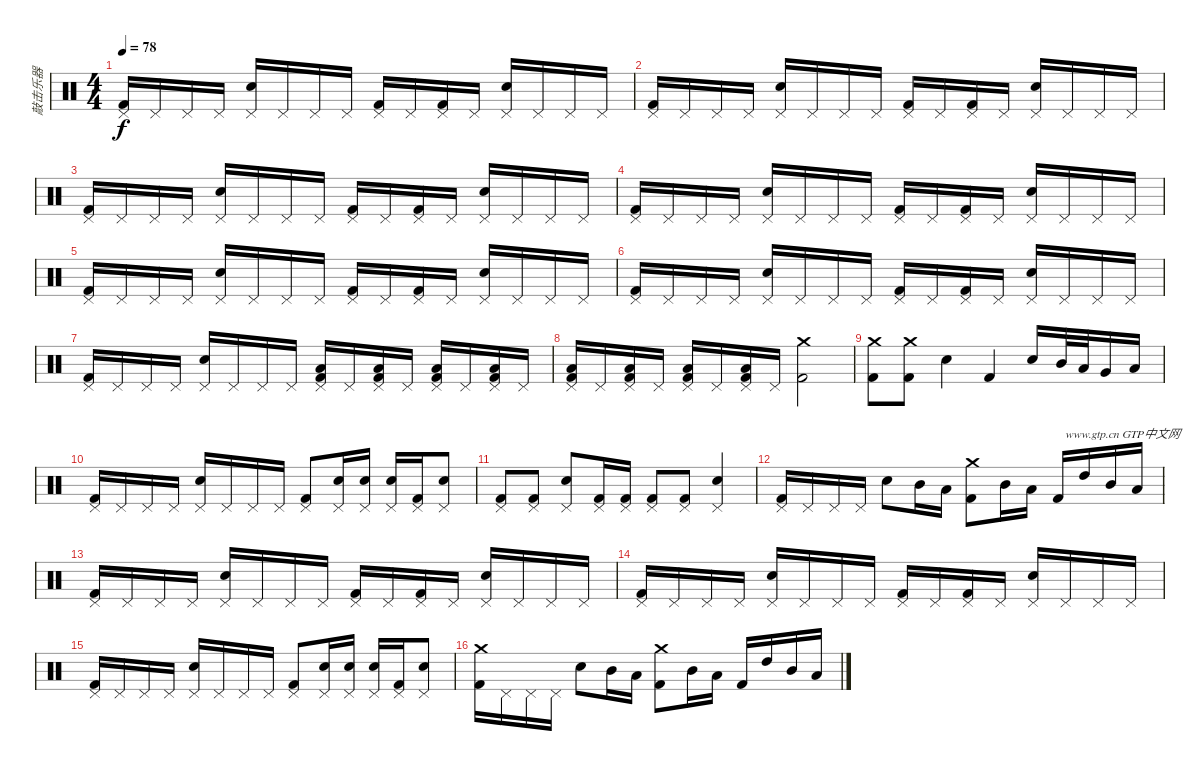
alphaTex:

\track ("敲击乐器" "敲击乐器") {instrument percussion}
\staff {score}
\articulation defaults
\ts (4 4)
\tempo 78
\clef neutral
\ks c
("Pedal Hi-Hat (hit)" "Kick (hit) 2").16{dy f} "Pedal Hi-Hat (hit)".16 "Pedal Hi-Hat (hit)".16 "Pedal Hi-Hat (hit)".16 ("Pedal Hi-Hat (hit)" "Snare (hit) 2").16 "Pedal Hi-Hat (hit)".16 "Pedal Hi-Hat (hit)".16 "Pedal Hi-Hat (hit)".16 ("Pedal Hi-Hat (hit)" "Kick (hit) 2").16 "Pedal Hi-Hat (hit)".16 ("Pedal Hi-Hat (hit)" "Kick (hit) 2").16 "Pedal Hi-Hat (hit)".16 ("Pedal Hi-Hat (hit)" "Snare (hit) 2").16 "Pedal Hi-Hat (hit)".16 "Pedal Hi-Hat (hit)".16 "Pedal Hi-Hat (hit)".16 |
("Pedal Hi-Hat (hit)" "Kick (hit) 2").16 "Pedal Hi-Hat (hit)".16 "Pedal Hi-Hat (hit)".16 "Pedal Hi-Hat (hit)".16 ("Pedal Hi-Hat (hit)" "Snare (hit) 2").16 "Pedal Hi-Hat (hit)".16 "Pedal Hi-Hat (hit)".16 "Pedal Hi-Hat (hit)".16 ("Pedal Hi-Hat (hit)" "Kick (hit) 2").16 "Pedal Hi-Hat (hit)".16 ("Pedal Hi-Hat (hit)" "Kick (hit) 2").16 "Pedal Hi-Hat (hit)".16 ("Pedal Hi-Hat (hit)" "Snare (hit) 2").16 "Pedal Hi-Hat (hit)".16 "Pedal Hi-Hat (hit)".16 "Pedal Hi-Hat (hit)".16 |
("Pedal Hi-Hat (hit)" "Kick (hit) 2").16 "Pedal Hi-Hat (hit)".16 "Pedal Hi-Hat (hit)".16 "Pedal Hi-Hat (hit)".16 ("Pedal Hi-Hat (hit)" "Snare (hit) 2").16 "Pedal Hi-Hat (hit)".16 "Pedal Hi-Hat (hit)".16 "Pedal Hi-Hat (hit)".16 ("Pedal Hi-Hat (hit)" "Kick (hit) 2").16 "Pedal Hi-Hat (hit)".16 ("Pedal Hi-Hat (hit)" "Kick (hit) 2").16 "Pedal Hi-Hat (hit)".16 ("Pedal Hi-Hat (hit)" "Snare (hit) 2").16 "Pedal Hi-Hat (hit)".16 "Pedal Hi-Hat (hit)".16 "Pedal Hi-Hat (hit)".16 |
("Pedal Hi-Hat (hit)" "Kick (hit) 2").16 "Pedal Hi-Hat (hit)".16 "Pedal Hi-Hat (hit)".16 "Pedal Hi-Hat (hit)".16 ("Pedal Hi-Hat (hit)" "Snare (hit) 2").16 "Pedal Hi-Hat (hit)".16 "Pedal Hi-Hat (hit)".16 "Pedal Hi-Hat (hit)".16 ("Pedal Hi-Hat (hit)" "Kick (hit) 2").16 "Pedal Hi-Hat (hit)".16 ("Pedal Hi-Hat (hit)" "Kick (hit) 2").16 "Pedal Hi-Hat (hit)".16 ("Pedal Hi-Hat (hit)" "Snare (hit) 2").16 "Pedal Hi-Hat (hit)".16 "Pedal Hi-Hat (hit)".16 "Pedal Hi-Hat (hit)".16 |
("Pedal Hi-Hat (hit)" "Kick (hit) 2").16 "Pedal Hi-Hat (hit)".16 "Pedal Hi-Hat (hit)".16 "Pedal Hi-Hat (hit)".16 ("Pedal Hi-Hat (hit)" "Snare (hit) 2").16 "Pedal Hi-Hat (hit)".16 "Pedal Hi-Hat (hit)".16 "Pedal Hi-Hat (hit)".16 ("Pedal Hi-Hat (hit)" "Kick (hit) 2").16 "Pedal Hi-Hat (hit)".16 ("Pedal Hi-Hat (hit)" "Kick (hit) 2").16 "Pedal Hi-Hat (hit)".16 ("Pedal Hi-Hat (hit)" "Snare (hit) 2").16 "Pedal Hi-Hat (hit)".16 "Pedal Hi-Hat (hit)".16 "Pedal Hi-Hat (hit)".16 |
("Pedal Hi-Hat (hit)" "Kick (hit) 2").16 "Pedal Hi-Hat (hit)".16 "Pedal Hi-Hat (hit)".16 "Pedal Hi-Hat (hit)".16 ("Pedal Hi-Hat (hit)" "Snare (hit) 2").16 "Pedal Hi-Hat (hit)".16 "Pedal Hi-Hat (hit)".16 "Pedal Hi-Hat (hit)".16 ("Pedal Hi-Hat (hit)" "Kick (hit) 2").16 "Pedal Hi-Hat (hit)".16 ("Pedal Hi-Hat (hit)" "Kick (hit) 2").16 "Pedal Hi-Hat (hit)".16 ("Pedal Hi-Hat (hit)" "Snare (hit) 2").16 "Pedal Hi-Hat (hit)".16 "Pedal Hi-Hat (hit)".16 "Pedal Hi-Hat (hit)".16 |
("Pedal Hi-Hat (hit)" "Kick (hit) 2").16 "Pedal Hi-Hat (hit)".16 "Pedal Hi-Hat (hit)".16 "Pedal Hi-Hat (hit)".16 ("Pedal Hi-Hat (hit)" "Snare (hit) 2").16 "Pedal Hi-Hat (hit)".16 "Pedal Hi-Hat (hit)".16 "Pedal Hi-Hat (hit)".16 ("Pedal Hi-Hat (hit)" "Low Tom (hit)" "Kick (hit) 2").16 "Pedal Hi-Hat (hit)".16 ("Pedal Hi-Hat (hit)" "Low Tom (hit)" "Kick (hit) 2").16 "Pedal Hi-Hat (hit)".16 ("Pedal Hi-Hat (hit)" "Low Tom (hit)" "Kick (hit) 2").16 "Pedal Hi-Hat (hit)".16 ("Pedal Hi-Hat (hit)" "Low Tom (hit)" "Kick (hit) 2").16 "Pedal Hi-Hat (hit)".16 |
("Pedal Hi-Hat (hit)" "Low Tom (hit)" "Kick (hit) 2").16 "Pedal Hi-Hat (hit)".16 ("Pedal Hi-Hat (hit)" "Low Tom (hit)" "Kick (hit) 2").16 "Pedal Hi-Hat (hit)".16 ("Pedal Hi-Hat (hit)" "Low Tom (hit)" "Kick (hit) 2").16 "Pedal Hi-Hat (hit)".16 ("Pedal Hi-Hat (hit)" "Low Tom (hit)" "Kick (hit) 2").16 "Pedal Hi-Hat (hit)".16 ("Crash medium (hit)" "Kick (hit) 2").2 |
("Crash medium (hit)" "Kick (hit) 2").8 ("Crash medium (hit)" "Kick (hit) 2").8 "Snare (hit) 2".4 "Kick (hit) 2".4 "Snare (hit) 2".16 "Mid Tom (hit)".32 "Low Tom (hit)".32 "Very Low Tom (hit)".16 "Low Floor Tom (hit)".16 |
("Pedal Hi-Hat (hit)" "Kick (hit) 2").16 "Pedal Hi-Hat (hit)".16 "Pedal Hi-Hat (hit)".16 "Pedal Hi-Hat (hit)".16 ("Pedal Hi-Hat (hit)" "Snare (hit) 2").16 "Pedal Hi-Hat (hit)".16 "Pedal Hi-Hat (hit)".16 "Pedal Hi-Hat (hit)".16 ("Pedal Hi-Hat (hit)" "Kick (hit) 2").8 ("Pedal Hi-Hat (hit)" "Snare (hit) 2").16 ("Pedal Hi-Hat (hit)" "Snare (hit) 2").16 ("Pedal Hi-Hat (hit)" "Snare (hit) 2").16 ("Pedal Hi-Hat (hit)" "Kick (hit) 2").16 ("Pedal Hi-Hat (hit)" "Snare (hit) 2").8 |
("Pedal Hi-Hat (hit)" "Kick (hit) 2").8 ("Pedal Hi-Hat (hit)" "Kick (hit) 2").8 ("Pedal Hi-Hat (hit)" "Snare (hit) 2").8 ("Pedal Hi-Hat (hit)" "Kick (hit) 2").16 ("Pedal Hi-Hat (hit)" "Kick (hit) 2").16 ("Pedal Hi-Hat (hit)" "Kick (hit) 2").8 ("Pedal Hi-Hat (hit)" "Kick (hit) 2").8 ("Pedal Hi-Hat (hit)" "Snare (hit) 2").4 |
("Pedal Hi-Hat (hit)" "Kick (hit) 2").16 "Pedal Hi-Hat (hit)".16 "Pedal Hi-Hat (hit)".16 "Pedal Hi-Hat (hit)".16 "Snare (hit) 2".8 "Mid Tom (hit)".16 "Low Tom (hit)".16 ("Crash medium (hit)" "Kick (hit) 2").8 "Mid Tom (hit)".16{txt "                    www.gtp.cn GTP中文网"} "Low Tom (hit)".16 "Kick (hit) 2".16 "High Tom (hit)".16 "Mid Tom (hit)".16 "Low Tom (hit)".16 |
("Pedal Hi-Hat (hit)" "Kick (hit) 2").16 "Pedal Hi-Hat (hit)".16 "Pedal Hi-Hat (hit)".16 "Pedal Hi-Hat (hit)".16 ("Pedal Hi-Hat (hit)" "Snare (hit) 2").16 "Pedal Hi-Hat (hit)".16 "Pedal Hi-Hat (hit)".16 "Pedal Hi-Hat (hit)".16 ("Pedal Hi-Hat (hit)" "Kick (hit) 2").16 "Pedal Hi-Hat (hit)".16 ("Pedal Hi-Hat (hit)" "Kick (hit) 2").16 "Pedal Hi-Hat (hit)".16 ("Pedal Hi-Hat (hit)" "Snare (hit) 2").16 "Pedal Hi-Hat (hit)".16 "Pedal Hi-Hat (hit)".16 "Pedal Hi-Hat (hit)".16 |
("Pedal Hi-Hat (hit)" "Kick (hit) 2").16 "Pedal Hi-Hat (hit)".16 "Pedal Hi-Hat (hit)".16 "Pedal Hi-Hat (hit)".16 ("Pedal Hi-Hat (hit)" "Snare (hit) 2").16 "Pedal Hi-Hat (hit)".16 "Pedal Hi-Hat (hit)".16 "Pedal Hi-Hat (hit)".16 ("Pedal Hi-Hat (hit)" "Kick (hit) 2").16 "Pedal Hi-Hat (hit)".16 ("Pedal Hi-Hat (hit)" "Kick (hit) 2").16 "Pedal Hi-Hat (hit)".16 ("Pedal Hi-Hat (hit)" "Snare (hit) 2").16 "Pedal Hi-Hat (hit)".16 "Pedal Hi-Hat (hit)".16 "Pedal Hi-Hat (hit)".16 |
("Pedal Hi-Hat (hit)" "Kick (hit) 2").16 "Pedal Hi-Hat (hit)".16 "Pedal Hi-Hat (hit)".16 "Pedal Hi-Hat (hit)".16 ("Pedal Hi-Hat (hit)" "Snare (hit) 2").16 "Pedal Hi-Hat (hit)".16 "Pedal Hi-Hat (hit)".16 "Pedal Hi-Hat (hit)".16 ("Pedal Hi-Hat (hit)" "Kick (hit) 2").8 ("Pedal Hi-Hat (hit)" "Snare (hit) 2").16 ("Pedal Hi-Hat (hit)" "Snare (hit) 2").16 ("Pedal Hi-Hat (hit)" "Snare (hit) 2").16 ("Pedal Hi-Hat (hit)" "Kick (hit) 2").16 ("Pedal Hi-Hat (hit)" "Snare (hit) 2").8 |
("Crash medium (hit)" "Kick (hit) 2").16 "Pedal Hi-Hat (hit)".16 "Pedal Hi-Hat (hit)".16 "Pedal Hi-Hat (hit)".16 "Snare (hit) 2".8 "Mid Tom (hit)".16 "Low Tom (hit)".16 ("Crash medium (hit)" "Kick (hit) 2").8 "Mid Tom (hit)".16 "Low Tom (hit)".16 "Kick (hit) 2".16 "High Tom (hit)".16 "Mid Tom (hit)".16 "Low Tom (hit)".16
